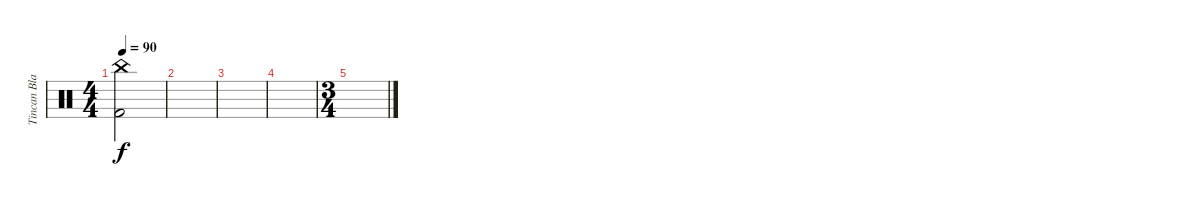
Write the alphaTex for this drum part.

\track ("Tincan Blaster" "Tincan Bla") {instrument percussion}
\staff {score}
\articulation defaults
\ts (4 4)
\tempo 90
\clef neutral
\ks c
("China (hit)" "Kick (hit) 2").2{dy f} |
|
|
|
\ts (3 4)
